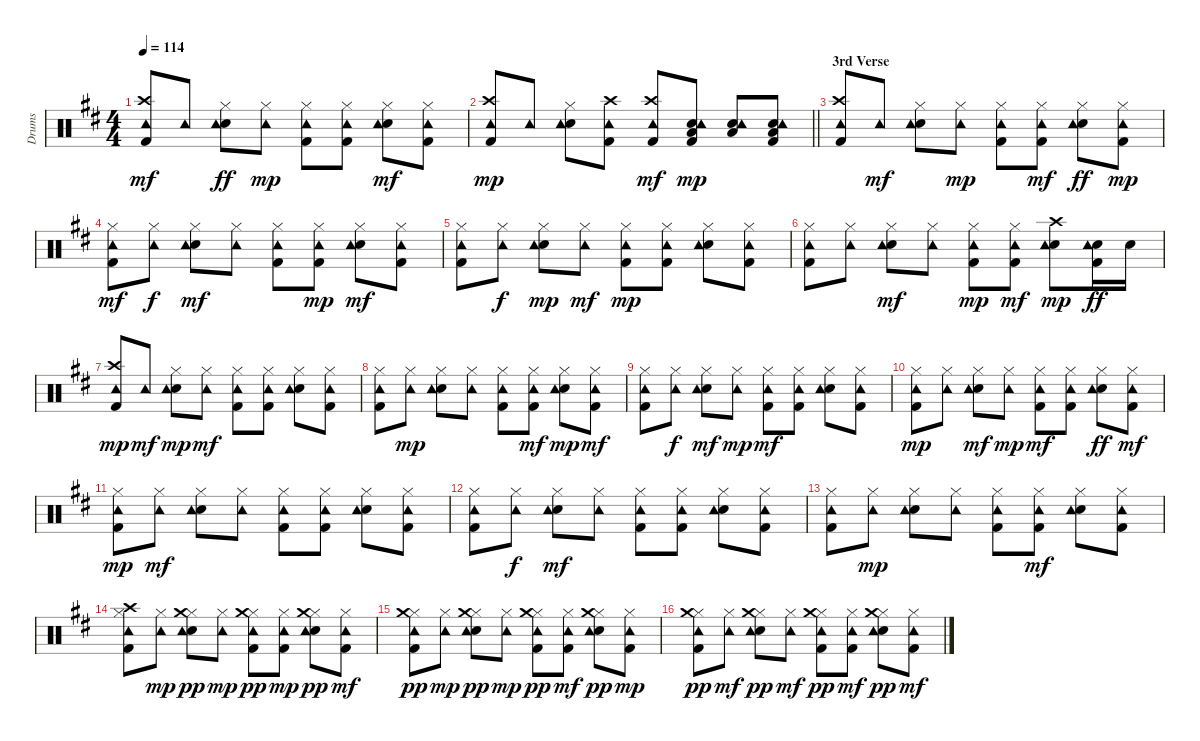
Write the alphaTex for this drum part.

\track ("Drums" "Drums") {instrument percussion}
\staff {score}
\articulation defaults
\ts (4 4)
\tempo 114
\clef neutral
\ks d
("Kick (hit) 2" "Crash high (hit)" "Tambourine (hit)").8{dy mf} "Tambourine (hit)".8 ("Snare (hit) 2" "Hi-Hat (closed)" "Tambourine (hit)").8{dy ff} ("Hi-Hat (closed)" "Tambourine (hit)").8{dy mp} ("Kick (hit) 2" "Hi-Hat (closed)" "Tambourine (hit)").8 ("Kick (hit) 2" "Hi-Hat (closed)" "Tambourine (hit)").8 ("Snare (hit) 2" "Hi-Hat (closed)" "Tambourine (hit)").8{dy mf} ("Kick (hit) 2" "Hi-Hat (closed)" "Tambourine (hit)").8 |
\barLineRight lightlight
("Kick (hit) 2" "Crash high (hit)" "Tambourine (hit)").8{dy mp} "Tambourine (hit)".8 ("Snare (hit) 2" "Hi-Hat (closed)" "Tambourine (hit)").8 ("Kick (hit) 2" "Crash high (hit)" "Tambourine (hit)").8 ("Kick (hit) 2" "Crash high (hit)" "Tambourine (hit)").8{dy mf} ("Kick (hit) 2" "Snare (hit) 2" "Low Floor Tom (hit)" "Tambourine (hit)").8{dy mp} ("Snare (hit) 2" "Low Floor Tom (hit)" "Tambourine (hit)").8 ("Kick (hit) 2" "Snare (hit) 2" "Low Floor Tom (hit)" "Tambourine (hit)").8 |
\section ("" "3rd Verse")
("Kick (hit) 2" "Crash high (hit)" "Tambourine (hit)").8 "Tambourine (hit)".8{dy mf} ("Snare (hit) 2" "Hi-Hat (closed)" "Tambourine (hit)").8 ("Hi-Hat (closed)" "Tambourine (hit)").8{dy mp} ("Kick (hit) 2" "Hi-Hat (closed)" "Tambourine (hit)").8 ("Kick (hit) 2" "Hi-Hat (closed)" "Tambourine (hit)").8{dy mf} ("Snare (hit) 2" "Hi-Hat (closed)" "Tambourine (hit)").8{dy ff} ("Kick (hit) 2" "Hi-Hat (closed)" "Tambourine (hit)").8{dy mp} |
("Kick (hit) 2" "Hi-Hat (closed)" "Tambourine (hit)").8{dy mf} ("Hi-Hat (closed)" "Tambourine (hit)").8{dy f} ("Snare (hit) 2" "Hi-Hat (closed)" "Tambourine (hit)").8{dy mf} ("Hi-Hat (closed)" "Tambourine (hit)").8 ("Kick (hit) 2" "Hi-Hat (closed)" "Tambourine (hit)").8 ("Kick (hit) 2" "Hi-Hat (closed)" "Tambourine (hit)").8{dy mp} ("Snare (hit) 2" "Hi-Hat (closed)" "Tambourine (hit)").8{dy mf} ("Kick (hit) 2" "Hi-Hat (closed)" "Tambourine (hit)").8 |
("Kick (hit) 2" "Hi-Hat (closed)" "Tambourine (hit)").8 ("Hi-Hat (closed)" "Tambourine (hit)").8{dy f} ("Snare (hit) 2" "Hi-Hat (closed)" "Tambourine (hit)").8{dy mp} ("Hi-Hat (closed)" "Tambourine (hit)").8{dy mf} ("Kick (hit) 2" "Hi-Hat (closed)" "Tambourine (hit)").8{dy mp} ("Kick (hit) 2" "Hi-Hat (closed)" "Tambourine (hit)").8 ("Snare (hit) 2" "Hi-Hat (closed)" "Tambourine (hit)").8 ("Kick (hit) 2" "Hi-Hat (closed)" "Tambourine (hit)").8 |
("Kick (hit) 2" "Hi-Hat (closed)" "Tambourine (hit)").8 ("Hi-Hat (closed)" "Tambourine (hit)").8 ("Snare (hit) 2" "Hi-Hat (closed)" "Tambourine (hit)").8{dy mf} ("Hi-Hat (closed)" "Tambourine (hit)").8 ("Kick (hit) 2" "Hi-Hat (closed)" "Tambourine (hit)").8{dy mp} ("Kick (hit) 2" "Hi-Hat (closed)" "Tambourine (hit)").8{dy mf} ("Snare (hit) 2" "Crash high (hit)" "Tambourine (hit)").8{dy mp} ("Kick (hit) 2" "Snare (hit) 2" "Tambourine (hit)").16{dy ff} "Snare (hit) 2".16 |
("Kick (hit) 2" "Crash high (hit)" "Tambourine (hit)").8{dy mp} "Tambourine (hit)".8{dy mf} ("Snare (hit) 2" "Hi-Hat (closed)" "Tambourine (hit)").8{dy mp} ("Hi-Hat (closed)" "Tambourine (hit)").8{dy mf} ("Kick (hit) 2" "Hi-Hat (closed)" "Tambourine (hit)").8 ("Kick (hit) 2" "Hi-Hat (closed)" "Tambourine (hit)").8 ("Snare (hit) 2" "Hi-Hat (closed)" "Tambourine (hit)").8 ("Kick (hit) 2" "Hi-Hat (closed)" "Tambourine (hit)").8 |
("Kick (hit) 2" "Hi-Hat (closed)" "Tambourine (hit)").8 ("Hi-Hat (closed)" "Tambourine (hit)").8{dy mp} ("Snare (hit) 2" "Hi-Hat (closed)" "Tambourine (hit)").8 ("Hi-Hat (closed)" "Tambourine (hit)").8 ("Kick (hit) 2" "Hi-Hat (closed)" "Tambourine (hit)").8 ("Kick (hit) 2" "Hi-Hat (closed)" "Tambourine (hit)").8{dy mf} ("Snare (hit) 2" "Hi-Hat (closed)" "Tambourine (hit)").8{dy mp} ("Kick (hit) 2" "Hi-Hat (closed)" "Tambourine (hit)").8{dy mf} |
("Kick (hit) 2" "Hi-Hat (closed)" "Tambourine (hit)").8 ("Hi-Hat (closed)" "Tambourine (hit)").8{dy f} ("Snare (hit) 2" "Hi-Hat (closed)" "Tambourine (hit)").8{dy mf} ("Hi-Hat (closed)" "Tambourine (hit)").8{dy mp} ("Kick (hit) 2" "Hi-Hat (closed)" "Tambourine (hit)").8{dy mf} ("Kick (hit) 2" "Hi-Hat (closed)" "Tambourine (hit)").8 ("Snare (hit) 2" "Hi-Hat (closed)" "Tambourine (hit)").8 ("Kick (hit) 2" "Hi-Hat (closed)" "Tambourine (hit)").8 |
("Kick (hit) 2" "Hi-Hat (closed)" "Tambourine (hit)").8{dy mp} ("Hi-Hat (closed)" "Tambourine (hit)").8 ("Snare (hit) 2" "Hi-Hat (closed)" "Tambourine (hit)").8{dy mf} ("Hi-Hat (closed)" "Tambourine (hit)").8{dy mp} ("Kick (hit) 2" "Hi-Hat (closed)" "Tambourine (hit)").8{dy mf} ("Kick (hit) 2" "Hi-Hat (closed)" "Tambourine (hit)").8 ("Snare (hit) 2" "Hi-Hat (closed)" "Tambourine (hit)").8{dy ff} ("Kick (hit) 2" "Hi-Hat (closed)" "Tambourine (hit)").8{dy mf} |
("Kick (hit) 2" "Hi-Hat (closed)" "Tambourine (hit)").8{dy mp} ("Hi-Hat (closed)" "Tambourine (hit)").8{dy mf} ("Snare (hit) 2" "Hi-Hat (closed)" "Tambourine (hit)").8 ("Hi-Hat (closed)" "Tambourine (hit)").8 ("Kick (hit) 2" "Hi-Hat (closed)" "Tambourine (hit)").8 ("Kick (hit) 2" "Hi-Hat (closed)" "Tambourine (hit)").8 ("Snare (hit) 2" "Hi-Hat (closed)" "Tambourine (hit)").8 ("Kick (hit) 2" "Hi-Hat (closed)" "Tambourine (hit)").8 |
("Kick (hit) 2" "Hi-Hat (closed)" "Tambourine (hit)").8 ("Hi-Hat (closed)" "Tambourine (hit)").8{dy f} ("Snare (hit) 2" "Hi-Hat (closed)" "Tambourine (hit)").8{dy mf} ("Hi-Hat (closed)" "Tambourine (hit)").8 ("Kick (hit) 2" "Hi-Hat (closed)" "Tambourine (hit)").8 ("Kick (hit) 2" "Hi-Hat (closed)" "Tambourine (hit)").8 ("Snare (hit) 2" "Hi-Hat (closed)" "Tambourine (hit)").8 ("Kick (hit) 2" "Hi-Hat (closed)" "Tambourine (hit)").8 |
("Kick (hit) 2" "Hi-Hat (closed)" "Tambourine (hit)").8 ("Hi-Hat (closed)" "Tambourine (hit)").8{dy mp} ("Snare (hit) 2" "Hi-Hat (closed)" "Tambourine (hit)").8 ("Hi-Hat (closed)" "Tambourine (hit)").8 ("Kick (hit) 2" "Hi-Hat (closed)" "Tambourine (hit)").8 ("Kick (hit) 2" "Hi-Hat (closed)" "Tambourine (hit)").8{dy mf} ("Snare (hit) 2" "Hi-Hat (closed)" "Tambourine (hit)").8 ("Kick (hit) 2" "Hi-Hat (closed)" "Tambourine (hit)").8 |
("Kick (hit) 2" "Hi-Hat (closed)" "Crash high (hit)" "Tambourine (hit)").8 ("Hi-Hat (closed)" "Tambourine (hit)").8{dy mp} ("Snare (hit) 2" "Hi-Hat (closed)" "Tambourine (hit)" "Crash medium (hit)").8{dy pp} ("Hi-Hat (closed)" "Tambourine (hit)").8{dy mp} ("Kick (hit) 2" "Hi-Hat (closed)" "Tambourine (hit)" "Crash medium (hit)").8{dy pp} ("Kick (hit) 2" "Hi-Hat (closed)" "Tambourine (hit)").8{dy mp} ("Snare (hit) 2" "Hi-Hat (closed)" "Tambourine (hit)" "Crash medium (hit)").8{dy pp} ("Kick (hit) 2" "Hi-Hat (closed)" "Tambourine (hit)").8{dy mf} |
("Kick (hit) 2" "Hi-Hat (closed)" "Tambourine (hit)" "Crash medium (hit)").8{dy pp} ("Hi-Hat (closed)" "Tambourine (hit)").8{dy mp} ("Snare (hit) 2" "Hi-Hat (closed)" "Tambourine (hit)" "Crash medium (hit)").8{dy pp} ("Hi-Hat (closed)" "Tambourine (hit)").8{dy mp} ("Kick (hit) 2" "Hi-Hat (closed)" "Tambourine (hit)" "Crash medium (hit)").8{dy pp} ("Kick (hit) 2" "Hi-Hat (closed)" "Tambourine (hit)").8{dy mf} ("Snare (hit) 2" "Hi-Hat (closed)" "Tambourine (hit)" "Crash medium (hit)").8{dy pp} ("Kick (hit) 2" "Hi-Hat (closed)" "Tambourine (hit)").8{dy mp} |
("Kick (hit) 2" "Hi-Hat (closed)" "Tambourine (hit)" "Crash medium (hit)").8{dy pp} ("Hi-Hat (closed)" "Tambourine (hit)").8{dy mf} ("Snare (hit) 2" "Hi-Hat (closed)" "Tambourine (hit)" "Crash medium (hit)").8{dy pp} ("Hi-Hat (closed)" "Tambourine (hit)").8{dy mf} ("Kick (hit) 2" "Hi-Hat (closed)" "Tambourine (hit)" "Crash medium (hit)").8{dy pp} ("Kick (hit) 2" "Hi-Hat (closed)" "Tambourine (hit)").8{dy mf} ("Snare (hit) 2" "Hi-Hat (closed)" "Tambourine (hit)" "Crash medium (hit)").8{dy pp} ("Kick (hit) 2" "Hi-Hat (closed)" "Tambourine (hit)").8{dy mf}
